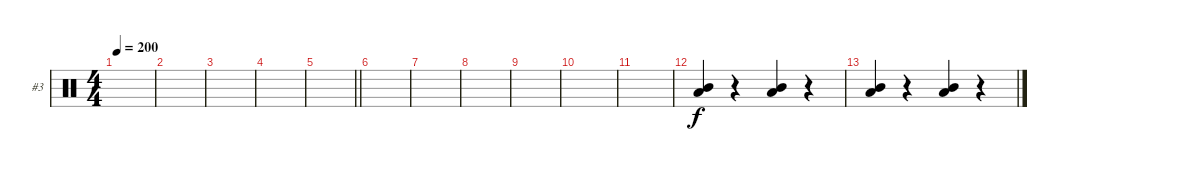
\bracketExtendMode groupsimilarinstruments
\firstSystemTrackNameOrientation horizontal
\otherSystemsTrackNameOrientation horizontal
\track ("Chris Fehn" "#3") {instrument percussion}
\staff {score}
\articulation defaults
\ts (4 4)
\tempo 200
\clef neutral
\ks c
|
|
|
|
\barLineRight lightlight
|
|
|
|
|
|
|
("Low Tom (hit)" "Mid Tom (hit)").4 r.4 ("Low Tom (hit)" "Mid Tom (hit)").4 r.4 |
("Low Tom (hit)" "Mid Tom (hit)").4 r.4 ("Low Tom (hit)" "Mid Tom (hit)").4 r.4
